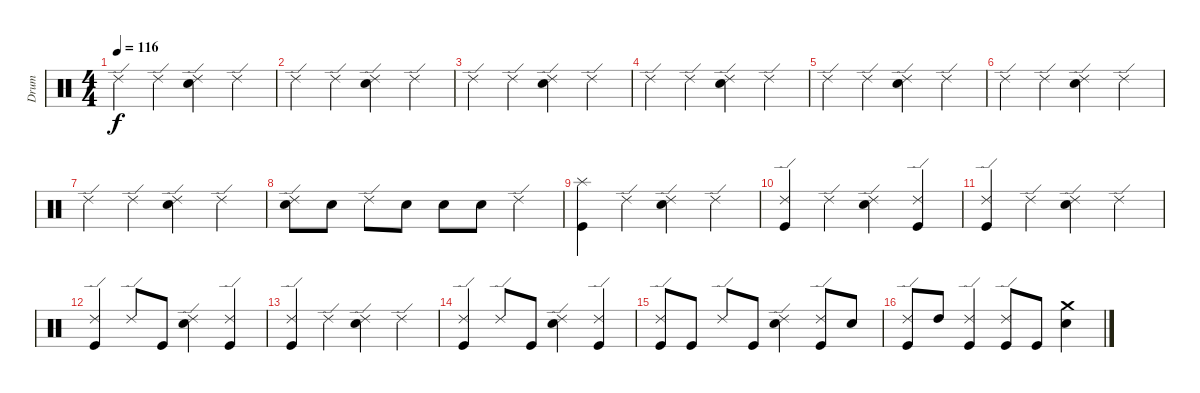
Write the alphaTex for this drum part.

\track ("Drum" "Drum") {instrument percussion}
\staff {score}
\articulation defaults
\ts (4 4)
\tempo 116
\clef neutral
\ks c "Ride (edge) 2".4{dy f} "Ride (edge) 2".4
("Electric Snare (hit)" "Ride (edge) 2").4 "Ride (edge) 2".4 |
"Ride (edge) 2".4 "Ride (edge) 2".4 ("Electric Snare (hit)" "Ride (edge) 2").4 "Ride (edge) 2".4 |
"Ride (edge) 2".4 "Ride (edge) 2".4 ("Electric Snare (hit)" "Ride (edge) 2").4 "Ride (edge) 2".4 |
"Ride (edge) 2".4 "Ride (edge) 2".4 ("Electric Snare (hit)" "Ride (edge) 2").4 "Ride (edge) 2".4 |
"Ride (edge) 2".4 "Ride (edge) 2".4 ("Electric Snare (hit)" "Ride (edge) 2").4 "Ride (edge) 2".4 |
"Ride (edge) 2".4 "Ride (edge) 2".4 ("Electric Snare (hit)" "Ride (edge) 2").4 "Ride (edge) 2".4 |
"Ride (edge) 2".4 "Ride (edge) 2".4 ("Electric Snare (hit)" "Ride (edge) 2").4 "Ride (edge) 2".4 |
("Electric Snare (hit)" "Ride (edge) 2").8 "Electric Snare (hit)".8 "Ride (edge) 2".8 "Electric Snare (hit)".8 "Electric Snare (hit)".8 "Electric Snare (hit)".8 "Ride (edge) 2".4 |
("Kick (hit)" "Splash (hit)").4 "Ride (edge) 2".4 ("Electric Snare (hit)" "Ride (edge) 2").4 "Ride (edge) 2".4 |
("Kick (hit)" "Ride (edge) 2").4 "Ride (edge) 2".4 ("Electric Snare (hit)" "Ride (edge) 2").4 ("Kick (hit)" "Ride (edge) 2").4 |
("Kick (hit)" "Ride (edge) 2").4 "Ride (edge) 2".4 ("Electric Snare (hit)" "Ride (edge) 2").4 "Ride (edge) 2".4 |
("Kick (hit)" "Ride (edge) 2").4 "Ride (edge) 2".8 "Kick (hit)".8 ("Electric Snare (hit)" "Ride (edge) 2").4 ("Kick (hit)" "Ride (edge) 2").4 |
("Kick (hit)" "Ride (edge) 2").4 "Ride (edge) 2".4 ("Electric Snare (hit)" "Ride (edge) 2").4 "Ride (edge) 2".4 |
("Kick (hit)" "Ride (edge) 2").4 "Ride (edge) 2".8 "Kick (hit)".8 ("Electric Snare (hit)" "Ride (edge) 2").4 ("Kick (hit)" "Ride (edge) 2").4 |
("Kick (hit)" "Ride (edge) 2").8 "Kick (hit)".8 "Ride (edge) 2".8 "Kick (hit)".8 ("Electric Snare (hit)" "Ride (edge) 2").4 ("Kick (hit)" "Ride (edge) 2").8 "Electric Snare (hit)".8 |
("Kick (hit)" "Ride (edge) 2").8 "High Tom (hit)".8 ("Kick (hit)" "Ride (edge) 2").4 ("Kick (hit)" "Ride (edge) 2").8 "Kick (hit)".8 ("Electric Snare (hit)" "Crash medium (hit)").4
